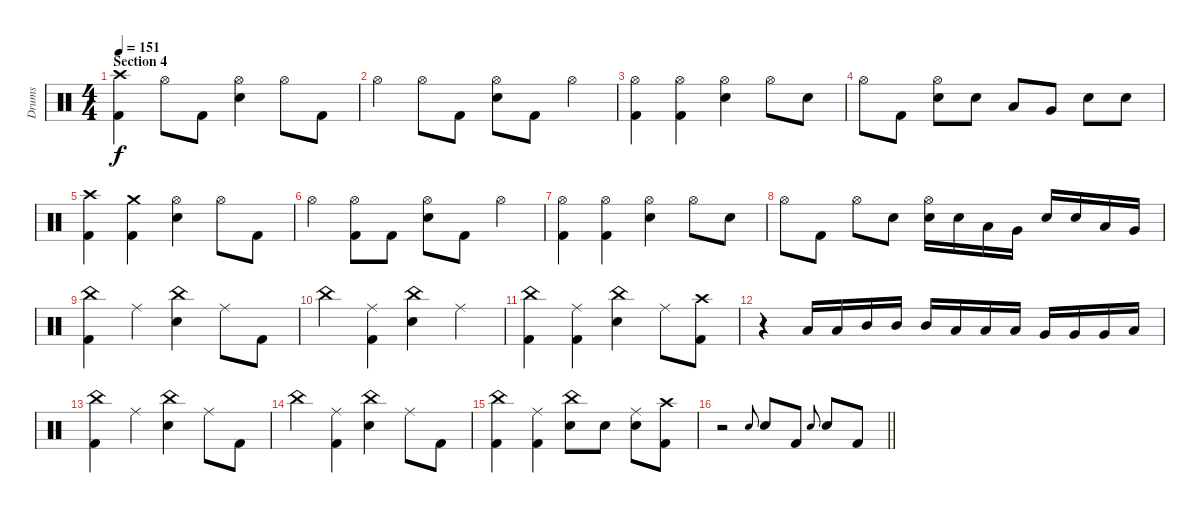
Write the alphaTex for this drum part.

\track ("Drums" "Drums") {instrument percussion}
\staff {score}
\articulation defaults
\ts (4 4)
\section ("" "Section 4")
\tempo 151
\clef neutral
\ks c
("Crash high (hit)" "Kick (hit) 2").4{dy f} "Hi-Hat (open)".8 "Kick (hit) 2".8 ("Hi-Hat (open)" "Snare (hit) 2").4 "Hi-Hat (open)".8 "Kick (hit) 2".8 |
"Hi-Hat (open)".4 "Hi-Hat (open)".8 "Kick (hit) 2".8 ("Hi-Hat (open)" "Snare (hit) 2").8 "Kick (hit) 2".8 "Hi-Hat (open)".4 |
("Hi-Hat (open)" "Kick (hit) 2").4 ("Hi-Hat (open)" "Kick (hit) 2").4 ("Hi-Hat (open)" "Snare (hit) 2").4 "Hi-Hat (open)".8 "Snare (hit) 2".8 |
"Hi-Hat (open)".8 "Kick (hit) 2".8 ("Hi-Hat (open)" "Snare (hit) 2").8 "Snare (hit) 2".8 "Low Tom (hit)".8 "Very Low Tom (hit)".8 "Snare (hit) 2".8 "Snare (hit) 2".8 |
("Crash high (hit)" "Kick (hit) 2").4 ("Crash medium (hit)" "Kick (hit) 2").4 ("Hi-Hat (open)" "Snare (hit) 2").4 "Hi-Hat (open)".8 "Kick (hit) 2".8 |
"Hi-Hat (open)".4 ("Hi-Hat (open)" "Kick (hit) 2").8 "Kick (hit) 2".8 ("Hi-Hat (open)" "Snare (hit) 2").8 "Kick (hit) 2".8 "Hi-Hat (open)".4 |
("Hi-Hat (open)" "Kick (hit) 2").4 ("Hi-Hat (open)" "Kick (hit) 2").4 ("Hi-Hat (open)" "Snare (hit) 2").4 "Hi-Hat (open)".8 "Snare (hit) 2".8 |
"Hi-Hat (open)".8 "Kick (hit) 2".8 "Hi-Hat (open)".8 "Snare (hit) 2".8 ("Hi-Hat (open)" "Snare (hit) 2").16 "Snare (hit) 2".16 "Low Tom (hit)".16 "Very Low Tom (hit)".16 "Snare (hit) 2".16 "Snare (hit) 2".16 "Low Tom (hit)".16 "Very Low Tom (hit)".16 |
("China (hit)" "Kick (hit) 2").4 "Ride (middle)".4 ("China (hit)" "Snare (hit) 2").4 "Ride (middle)".8 "Kick (hit) 2".8 |
"China (hit)".4 ("Ride (middle)" "Kick (hit) 2").4 ("China (hit)" "Snare (hit) 2").4 "Ride (middle)".4 |
("China (hit)" "Kick (hit) 2").4 ("Ride (middle)" "Kick (hit) 2").4 ("China (hit)" "Snare (hit) 2").4 "Ride (middle)".8 ("Crash high (hit)" "Kick (hit) 2").8 |
r.4 "Low Tom (hit)".16 "Low Tom (hit)".16 "Mid Tom (hit)".16 "Mid Tom (hit)".16 "Mid Tom (hit)".16 "Low Tom (hit)".16 "Low Tom (hit)".16 "Low Tom (hit)".16 "Very Low Tom (hit)".16 "Very Low Tom (hit)".16 "Very Low Tom (hit)".16 "Low Floor Tom (hit)".16 |
("China (hit)" "Kick (hit) 2").4 "Ride (middle)".4 ("China (hit)" "Snare (hit) 2").4 "Ride (middle)".8 "Kick (hit) 2".8 |
"China (hit)".4 ("Ride (middle)" "Kick (hit) 2").4 ("China (hit)" "Snare (hit) 2").4 "Ride (middle)".8 "Kick (hit) 2".8 |
("China (hit)" "Kick (hit) 2").4 ("Ride (middle)" "Kick (hit) 2").4 ("China (hit)" "Snare (hit) 2").8 "Snare (hit) 2".8 ("Ride (middle)" "Snare (hit) 2").8 ("Crash high (hit)" "Kick (hit) 2").8 |
\barLineRight lightlight
r.2 "Snare (hit) 2"{h}.8{gr onbeat} "Snare (hit) 2".8 "Kick (hit) 2".8 "Snare (hit) 2"{h}.8{gr onbeat} "Snare (hit) 2".8 "Kick (hit) 2".8
